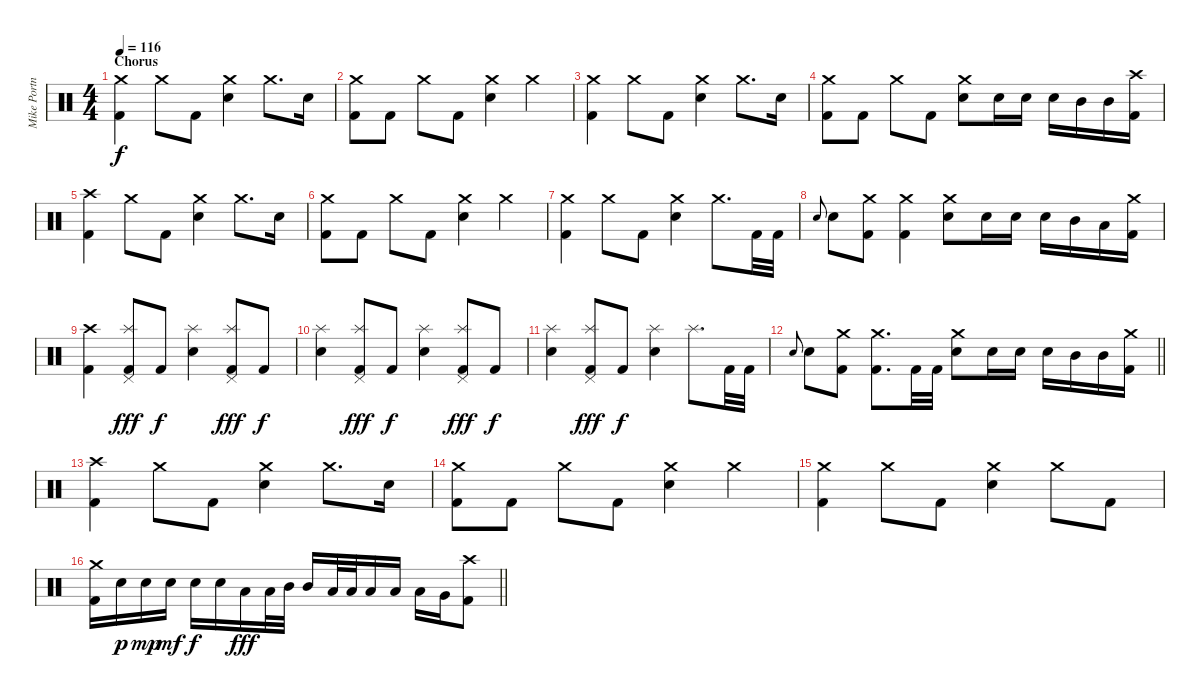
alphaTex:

\track ("Mike Portnoy [Drums]" "Mike Portn") {instrument percussion}
\staff {score}
\articulation defaults
\ts (4 4)
\section ("" "Chorus")
\tempo 116
\clef neutral
\ks c
("Crash medium (hit)" "Kick (hit) 2").4{dy f} "Crash medium (hit)".8 "Kick (hit) 2".8 ("Crash medium (hit)" "Electric Snare (hit)").4 "Crash medium (hit)".8{d} "Snare (hit) 2".16 |
("Crash medium (hit)" "Kick (hit) 2").8 "Kick (hit) 2".8 "Crash medium (hit)".8 "Kick (hit) 2".8 ("Crash medium (hit)" "Electric Snare (hit)").4 "Crash medium (hit)".4 |
("Crash medium (hit)" "Kick (hit) 2").4 "Crash medium (hit)".8 "Kick (hit) 2".8 ("Crash medium (hit)" "Electric Snare (hit)").4 "Crash medium (hit)".8{d} "Snare (hit) 2".16 |
("Crash medium (hit)" "Kick (hit) 2").8 "Kick (hit) 2".8 "Crash medium (hit)".8 "Kick (hit) 2".8 ("Crash medium (hit)" "Electric Snare (hit)").8 "Electric Snare (hit)".16 "Electric Snare (hit)".16 "Electric Snare (hit)".16 "Mid Tom (hit)".16 "Mid Tom (hit)".16 ("Crash high (hit)" "Kick (hit) 2").16 |
("Crash high (hit)" "Kick (hit) 2").4 "Crash medium (hit)".8 "Kick (hit) 2".8 ("Crash medium (hit)" "Electric Snare (hit)").4 "Crash medium (hit)".8{d} "Snare (hit) 2".16 |
("Crash medium (hit)" "Kick (hit) 2").8 "Kick (hit) 2".8 "Crash medium (hit)".8 "Kick (hit) 2".8 ("Crash medium (hit)" "Electric Snare (hit)").4 "Crash medium (hit)".4 |
("Crash medium (hit)" "Kick (hit) 2").4 "Crash medium (hit)".8 "Kick (hit) 2".8 ("Crash medium (hit)" "Electric Snare (hit)").4 "Crash medium (hit)".8{d} "Kick (hit) 2".32 "Kick (hit) 2".32 |
"Electric Snare (hit)".8{gr onbeat} "Electric Snare (hit)".8 ("Crash medium (hit)" "Kick (hit) 2").8 ("Crash medium (hit)" "Kick (hit) 2").4 ("Crash medium (hit)" "Electric Snare (hit)").8 "Electric Snare (hit)".16 "Electric Snare (hit)".16 "Electric Snare (hit)".16 "Mid Tom (hit)".16 "Low Tom (hit)".16 ("Crash medium (hit)" "Kick (hit) 2").16 |
("Crash high (hit)" "Kick (hit) 2").4 ("Splash (hit)" "Pedal Hi-Hat (hit)" "Kick (hit) 2").8{dy fff} "Kick (hit) 2".8{dy f} ("Splash (hit)" "Electric Snare (hit)").4 ("Splash (hit)" "Pedal Hi-Hat (hit)" "Kick (hit) 2").8{dy fff} "Kick (hit) 2".8{dy f} |
("Splash (hit)" "Electric Snare (hit)").4 ("Splash (hit)" "Pedal Hi-Hat (hit)" "Kick (hit) 2").8{dy fff} "Kick (hit) 2".8{dy f} ("Splash (hit)" "Electric Snare (hit)").4 ("Splash (hit)" "Pedal Hi-Hat (hit)" "Kick (hit) 2").8{dy fff} "Kick (hit) 2".8{dy f} |
("Splash (hit)" "Electric Snare (hit)").4 ("Splash (hit)" "Pedal Hi-Hat (hit)" "Kick (hit) 2").8{dy fff} "Kick (hit) 2".8{dy f} ("Splash (hit)" "Electric Snare (hit)").4 "Splash (hit)".8{d} "Kick (hit) 2".32 "Kick (hit) 2".32 |
\barLineRight lightlight "Electric Snare (hit)".8{gr onbeat} "Electric Snare (hit)".8
("Crash medium (hit)" "Kick (hit) 2").8 ("Crash medium (hit)" "Kick (hit) 2").8{d} "Kick (hit) 2".32 "Kick (hit) 2".32 ("Crash medium (hit)" "Electric Snare (hit)").8 "Electric Snare (hit)".16 "Electric Snare (hit)".16 "Electric Snare (hit)".16 "Mid Tom (hit)".16 "Mid Tom (hit)".16 ("Crash medium (hit)" "Kick (hit) 2").16 |
("Crash high (hit)" "Kick (hit) 2").4 "Crash medium (hit)".8 "Kick (hit) 2".8 ("Crash medium (hit)" "Electric Snare (hit)").4 "Crash medium (hit)".8{d} "Electric Snare (hit)".16 |
("Crash medium (hit)" "Kick (hit) 2").8 "Kick (hit) 2".8 "Crash medium (hit)".8 "Kick (hit) 2".8 ("Crash medium (hit)" "Electric Snare (hit)").4 "Crash medium (hit)".4 |
("Crash medium (hit)" "Kick (hit) 2").4 "Crash medium (hit)".8 "Kick (hit) 2".8 ("Crash medium (hit)" "Electric Snare (hit)").4 "Crash medium (hit)".8 "Kick (hit) 2".8 |
\barLineRight lightlight
("Crash medium (hit)" "Kick (hit) 2").16 "Electric Snare (hit)".16{dy p} "Electric Snare (hit)".16{dy mp} "Electric Snare (hit)".16{dy mf} "Electric Snare (hit)".16{dy f} "Electric Snare (hit)".16 "Low Floor Tom (hit)".16{dy fff} "Low Floor Tom (hit)".32 "Mid Tom (hit)".32 "Mid Tom (hit)".16 "Low Tom (hit)".32 "Low Tom (hit)".32 "Low Tom (hit)".16 "Low Tom (hit)".16 "Low Tom (hit)".16 "Very Low Tom (hit)".16 ("Crash high (hit)" "Kick (hit) 2").8
